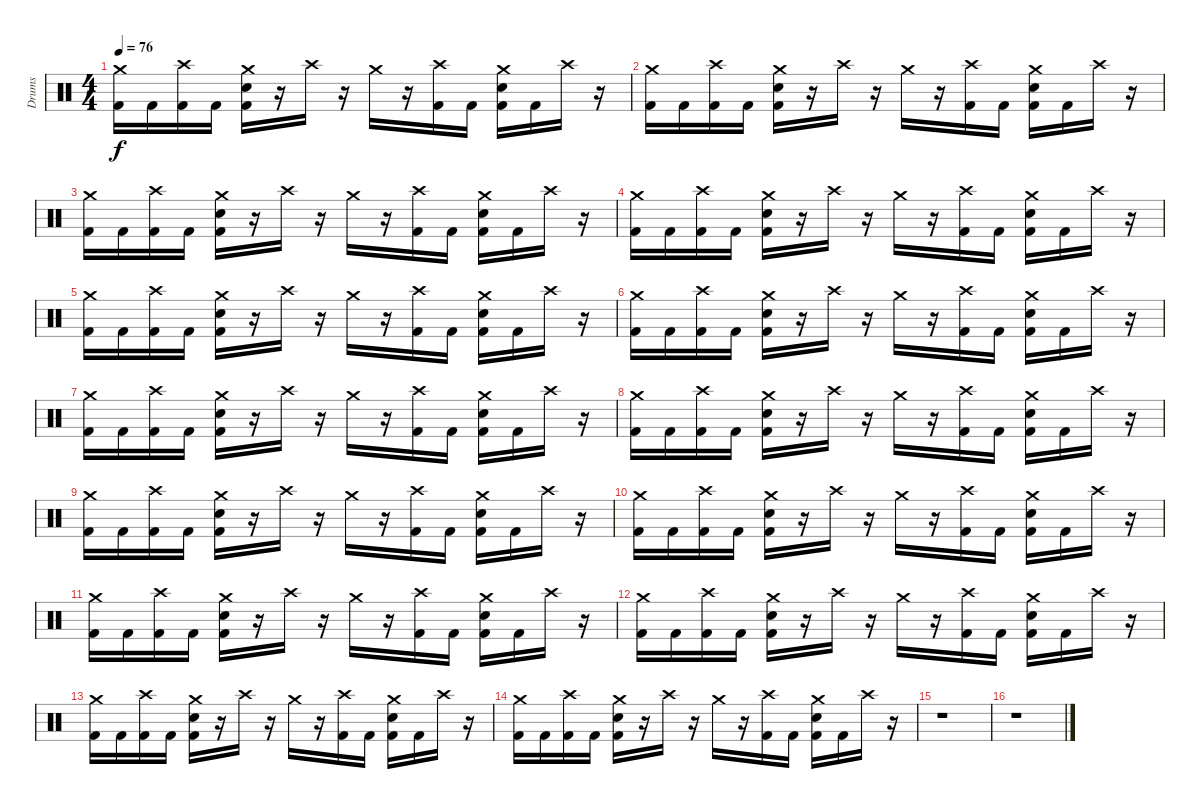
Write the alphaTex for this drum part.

\track ("Drums" "Drums") {instrument percussion}
\staff {score}
\articulation defaults
\ts (4 4)
\section ("" "")
\tempo 76
\clef neutral
\ks c
("Crash medium (hit)" "Kick (hit) 2").16{dy f} "Kick (hit) 2".16 ("Crash high (hit)" "Kick (hit) 2").16 "Kick (hit) 2".16 ("Crash medium (hit)" "Electric Snare (hit)" "Kick (hit) 2").16 r.16 "Crash high (hit)".16 r.16 "Crash medium (hit)".16 r.16 ("Crash high (hit)" "Kick (hit) 2").16 "Kick (hit) 2".16 ("Crash medium (hit)" "Electric Snare (hit)" "Kick (hit) 2").16 "Kick (hit) 2".16 "Crash high (hit)".16 r.16 |
("Crash medium (hit)" "Kick (hit) 2").16 "Kick (hit) 2".16 ("Crash high (hit)" "Kick (hit) 2").16 "Kick (hit) 2".16 ("Crash medium (hit)" "Electric Snare (hit)" "Kick (hit) 2").16 r.16 "Crash high (hit)".16 r.16 "Crash medium (hit)".16 r.16 ("Crash high (hit)" "Kick (hit) 2").16 "Kick (hit) 2".16 ("Crash medium (hit)" "Electric Snare (hit)" "Kick (hit) 2").16 "Kick (hit) 2".16 "Crash high (hit)".16 r.16 |
\section ("" "")
("Crash medium (hit)" "Kick (hit) 2").16 "Kick (hit) 2".16 ("Crash high (hit)" "Kick (hit) 2").16 "Kick (hit) 2".16 ("Crash medium (hit)" "Electric Snare (hit)" "Kick (hit) 2").16 r.16 "Crash high (hit)".16 r.16 "Crash medium (hit)".16 r.16 ("Crash high (hit)" "Kick (hit) 2").16 "Kick (hit) 2".16 ("Crash medium (hit)" "Electric Snare (hit)" "Kick (hit) 2").16 "Kick (hit) 2".16 "Crash high (hit)".16 r.16 |
("Crash medium (hit)" "Kick (hit) 2").16 "Kick (hit) 2".16 ("Crash high (hit)" "Kick (hit) 2").16 "Kick (hit) 2".16 ("Crash medium (hit)" "Electric Snare (hit)" "Kick (hit) 2").16 r.16 "Crash high (hit)".16 r.16 "Crash medium (hit)".16 r.16 ("Crash high (hit)" "Kick (hit) 2").16 "Kick (hit) 2".16 ("Crash medium (hit)" "Electric Snare (hit)" "Kick (hit) 2").16 "Kick (hit) 2".16 "Crash high (hit)".16 r.16 |
("Crash medium (hit)" "Kick (hit) 2").16 "Kick (hit) 2".16 ("Crash high (hit)" "Kick (hit) 2").16 "Kick (hit) 2".16 ("Crash medium (hit)" "Electric Snare (hit)" "Kick (hit) 2").16 r.16 "Crash high (hit)".16 r.16 "Crash medium (hit)".16 r.16 ("Crash high (hit)" "Kick (hit) 2").16 "Kick (hit) 2".16 ("Crash medium (hit)" "Electric Snare (hit)" "Kick (hit) 2").16 "Kick (hit) 2".16 "Crash high (hit)".16 r.16 |
("Crash medium (hit)" "Kick (hit) 2").16 "Kick (hit) 2".16 ("Crash high (hit)" "Kick (hit) 2").16 "Kick (hit) 2".16 ("Crash medium (hit)" "Electric Snare (hit)" "Kick (hit) 2").16 r.16 "Crash high (hit)".16 r.16 "Crash medium (hit)".16 r.16 ("Crash high (hit)" "Kick (hit) 2").16 "Kick (hit) 2".16 ("Crash medium (hit)" "Electric Snare (hit)" "Kick (hit) 2").16 "Kick (hit) 2".16 "Crash high (hit)".16 r.16 |
("Crash medium (hit)" "Kick (hit) 2").16 "Kick (hit) 2".16 ("Crash high (hit)" "Kick (hit) 2").16 "Kick (hit) 2".16 ("Crash medium (hit)" "Electric Snare (hit)" "Kick (hit) 2").16 r.16 "Crash high (hit)".16 r.16 "Crash medium (hit)".16 r.16 ("Crash high (hit)" "Kick (hit) 2").16 "Kick (hit) 2".16 ("Crash medium (hit)" "Electric Snare (hit)" "Kick (hit) 2").16 "Kick (hit) 2".16 "Crash high (hit)".16 r.16 |
("Crash medium (hit)" "Kick (hit) 2").16 "Kick (hit) 2".16 ("Crash high (hit)" "Kick (hit) 2").16 "Kick (hit) 2".16 ("Crash medium (hit)" "Electric Snare (hit)" "Kick (hit) 2").16 r.16 "Crash high (hit)".16 r.16 "Crash medium (hit)".16 r.16 ("Crash high (hit)" "Kick (hit) 2").16 "Kick (hit) 2".16 ("Crash medium (hit)" "Electric Snare (hit)" "Kick (hit) 2").16 "Kick (hit) 2".16 "Crash high (hit)".16 r.16 |
("Crash medium (hit)" "Kick (hit) 2").16 "Kick (hit) 2".16 ("Crash high (hit)" "Kick (hit) 2").16 "Kick (hit) 2".16 ("Crash medium (hit)" "Electric Snare (hit)" "Kick (hit) 2").16 r.16 "Crash high (hit)".16 r.16 "Crash medium (hit)".16 r.16 ("Crash high (hit)" "Kick (hit) 2").16 "Kick (hit) 2".16 ("Crash medium (hit)" "Electric Snare (hit)" "Kick (hit) 2").16 "Kick (hit) 2".16 "Crash high (hit)".16 r.16 |
("Crash medium (hit)" "Kick (hit) 2").16 "Kick (hit) 2".16 ("Crash high (hit)" "Kick (hit) 2").16 "Kick (hit) 2".16 ("Crash medium (hit)" "Electric Snare (hit)" "Kick (hit) 2").16 r.16 "Crash high (hit)".16 r.16 "Crash medium (hit)".16 r.16 ("Crash high (hit)" "Kick (hit) 2").16 "Kick (hit) 2".16 ("Crash medium (hit)" "Electric Snare (hit)" "Kick (hit) 2").16 "Kick (hit) 2".16 "Crash high (hit)".16 r.16 |
\section ("" "")
("Crash medium (hit)" "Kick (hit) 2").16 "Kick (hit) 2".16 ("Crash high (hit)" "Kick (hit) 2").16 "Kick (hit) 2".16 ("Crash medium (hit)" "Electric Snare (hit)" "Kick (hit) 2").16 r.16 "Crash high (hit)".16 r.16 "Crash medium (hit)".16 r.16 ("Crash high (hit)" "Kick (hit) 2").16 "Kick (hit) 2".16 ("Crash medium (hit)" "Electric Snare (hit)" "Kick (hit) 2").16 "Kick (hit) 2".16 "Crash high (hit)".16 r.16 |
("Crash medium (hit)" "Kick (hit) 2").16 "Kick (hit) 2".16 ("Crash high (hit)" "Kick (hit) 2").16 "Kick (hit) 2".16 ("Crash medium (hit)" "Electric Snare (hit)" "Kick (hit) 2").16 r.16 "Crash high (hit)".16 r.16 "Crash medium (hit)".16 r.16 ("Crash high (hit)" "Kick (hit) 2").16 "Kick (hit) 2".16 ("Crash medium (hit)" "Electric Snare (hit)" "Kick (hit) 2").16 "Kick (hit) 2".16 "Crash high (hit)".16 r.16 |
("Crash medium (hit)" "Kick (hit) 2").16 "Kick (hit) 2".16 ("Crash high (hit)" "Kick (hit) 2").16 "Kick (hit) 2".16 ("Crash medium (hit)" "Electric Snare (hit)" "Kick (hit) 2").16 r.16 "Crash high (hit)".16 r.16 "Crash medium (hit)".16 r.16 ("Crash high (hit)" "Kick (hit) 2").16 "Kick (hit) 2".16 ("Crash medium (hit)" "Electric Snare (hit)" "Kick (hit) 2").16 "Kick (hit) 2".16 "Crash high (hit)".16 r.16 |
("Crash medium (hit)" "Kick (hit) 2").16 "Kick (hit) 2".16 ("Crash high (hit)" "Kick (hit) 2").16 "Kick (hit) 2".16 ("Crash medium (hit)" "Electric Snare (hit)" "Kick (hit) 2").16 r.16 "Crash high (hit)".16 r.16 "Crash medium (hit)".16 r.16 ("Crash high (hit)" "Kick (hit) 2").16 "Kick (hit) 2".16 ("Crash medium (hit)" "Electric Snare (hit)" "Kick (hit) 2").16 "Kick (hit) 2".16 "Crash high (hit)".16 r.16 |
\section ("" "")
r.1 |
r.1
